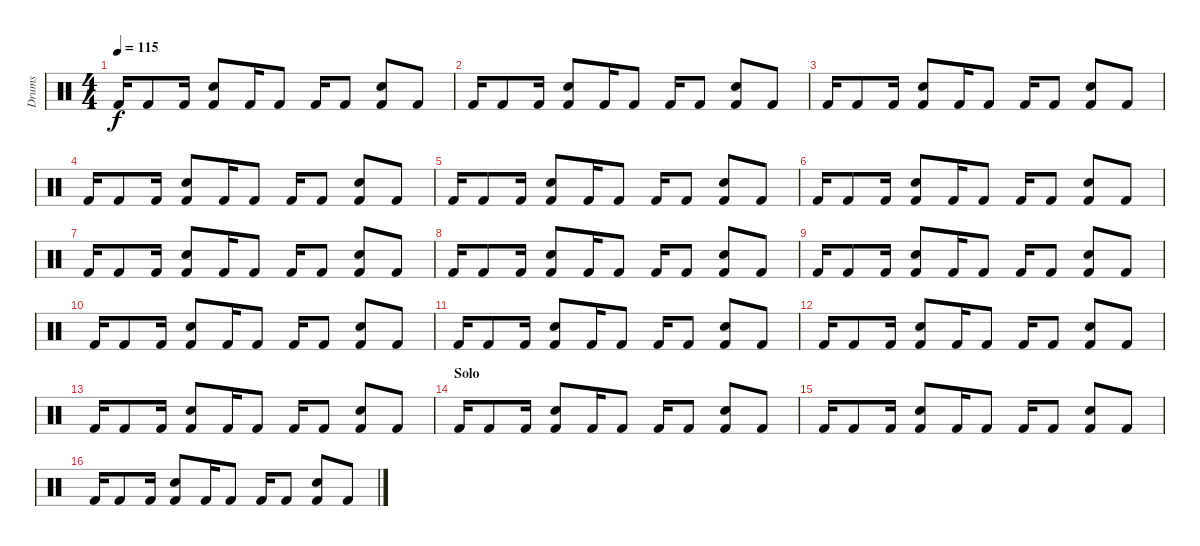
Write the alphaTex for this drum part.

\track ("Drums" "Drums") {instrument percussion}
\staff {score}
\articulation defaults
\ts (4 4)
\tempo 115
\clef neutral
\ks c "Kick (hit) 2".16{dy f} "Kick (hit) 2".8 "Kick (hit) 2".16
("Snare (hit) 2" "Kick (hit) 2").8 "Kick (hit) 2".16 "Kick (hit) 2".8 "Kick (hit) 2".16 "Kick (hit) 2".8 ("Snare (hit) 2" "Kick (hit) 2").8 "Kick (hit) 2".8 |
"Kick (hit) 2".16 "Kick (hit) 2".8 "Kick (hit) 2".16 ("Snare (hit) 2" "Kick (hit) 2").8 "Kick (hit) 2".16 "Kick (hit) 2".8 "Kick (hit) 2".16 "Kick (hit) 2".8 ("Snare (hit) 2" "Kick (hit) 2").8 "Kick (hit) 2".8 |
"Kick (hit) 2".16 "Kick (hit) 2".8 "Kick (hit) 2".16 ("Snare (hit) 2" "Kick (hit) 2").8 "Kick (hit) 2".16 "Kick (hit) 2".8 "Kick (hit) 2".16 "Kick (hit) 2".8 ("Snare (hit) 2" "Kick (hit) 2").8 "Kick (hit) 2".8 |
"Kick (hit) 2".16 "Kick (hit) 2".8 "Kick (hit) 2".16 ("Snare (hit) 2" "Kick (hit) 2").8 "Kick (hit) 2".16 "Kick (hit) 2".8 "Kick (hit) 2".16 "Kick (hit) 2".8 ("Snare (hit) 2" "Kick (hit) 2").8 "Kick (hit) 2".8 |
"Kick (hit) 2".16 "Kick (hit) 2".8 "Kick (hit) 2".16 ("Snare (hit) 2" "Kick (hit) 2").8 "Kick (hit) 2".16 "Kick (hit) 2".8 "Kick (hit) 2".16 "Kick (hit) 2".8 ("Snare (hit) 2" "Kick (hit) 2").8 "Kick (hit) 2".8 |
"Kick (hit) 2".16 "Kick (hit) 2".8 "Kick (hit) 2".16 ("Snare (hit) 2" "Kick (hit) 2").8 "Kick (hit) 2".16 "Kick (hit) 2".8 "Kick (hit) 2".16 "Kick (hit) 2".8 ("Snare (hit) 2" "Kick (hit) 2").8 "Kick (hit) 2".8 |
"Kick (hit) 2".16 "Kick (hit) 2".8 "Kick (hit) 2".16 ("Snare (hit) 2" "Kick (hit) 2").8 "Kick (hit) 2".16 "Kick (hit) 2".8 "Kick (hit) 2".16 "Kick (hit) 2".8 ("Snare (hit) 2" "Kick (hit) 2").8 "Kick (hit) 2".8 |
"Kick (hit) 2".16 "Kick (hit) 2".8 "Kick (hit) 2".16 ("Snare (hit) 2" "Kick (hit) 2").8 "Kick (hit) 2".16 "Kick (hit) 2".8 "Kick (hit) 2".16 "Kick (hit) 2".8 ("Snare (hit) 2" "Kick (hit) 2").8 "Kick (hit) 2".8 |
"Kick (hit) 2".16 "Kick (hit) 2".8 "Kick (hit) 2".16 ("Snare (hit) 2" "Kick (hit) 2").8 "Kick (hit) 2".16 "Kick (hit) 2".8 "Kick (hit) 2".16 "Kick (hit) 2".8 ("Snare (hit) 2" "Kick (hit) 2").8 "Kick (hit) 2".8 |
"Kick (hit) 2".16 "Kick (hit) 2".8 "Kick (hit) 2".16 ("Snare (hit) 2" "Kick (hit) 2").8 "Kick (hit) 2".16 "Kick (hit) 2".8 "Kick (hit) 2".16 "Kick (hit) 2".8 ("Snare (hit) 2" "Kick (hit) 2").8 "Kick (hit) 2".8 |
"Kick (hit) 2".16 "Kick (hit) 2".8 "Kick (hit) 2".16 ("Snare (hit) 2" "Kick (hit) 2").8 "Kick (hit) 2".16 "Kick (hit) 2".8 "Kick (hit) 2".16 "Kick (hit) 2".8 ("Snare (hit) 2" "Kick (hit) 2").8 "Kick (hit) 2".8 |
"Kick (hit) 2".16 "Kick (hit) 2".8 "Kick (hit) 2".16 ("Snare (hit) 2" "Kick (hit) 2").8 "Kick (hit) 2".16 "Kick (hit) 2".8 "Kick (hit) 2".16 "Kick (hit) 2".8 ("Snare (hit) 2" "Kick (hit) 2").8 "Kick (hit) 2".8 |
"Kick (hit) 2".16 "Kick (hit) 2".8 "Kick (hit) 2".16 ("Snare (hit) 2" "Kick (hit) 2").8 "Kick (hit) 2".16 "Kick (hit) 2".8 "Kick (hit) 2".16 "Kick (hit) 2".8 ("Snare (hit) 2" "Kick (hit) 2").8 "Kick (hit) 2".8 |
\section ("" "Solo")
"Kick (hit) 2".16 "Kick (hit) 2".8 "Kick (hit) 2".16 ("Snare (hit) 2" "Kick (hit) 2").8 "Kick (hit) 2".16 "Kick (hit) 2".8 "Kick (hit) 2".16 "Kick (hit) 2".8 ("Snare (hit) 2" "Kick (hit) 2").8 "Kick (hit) 2".8 |
"Kick (hit) 2".16 "Kick (hit) 2".8 "Kick (hit) 2".16 ("Snare (hit) 2" "Kick (hit) 2").8 "Kick (hit) 2".16 "Kick (hit) 2".8 "Kick (hit) 2".16 "Kick (hit) 2".8 ("Snare (hit) 2" "Kick (hit) 2").8 "Kick (hit) 2".8 |
"Kick (hit) 2".16 "Kick (hit) 2".8 "Kick (hit) 2".16 ("Snare (hit) 2" "Kick (hit) 2").8 "Kick (hit) 2".16 "Kick (hit) 2".8 "Kick (hit) 2".16 "Kick (hit) 2".8 ("Snare (hit) 2" "Kick (hit) 2").8 "Kick (hit) 2".8
